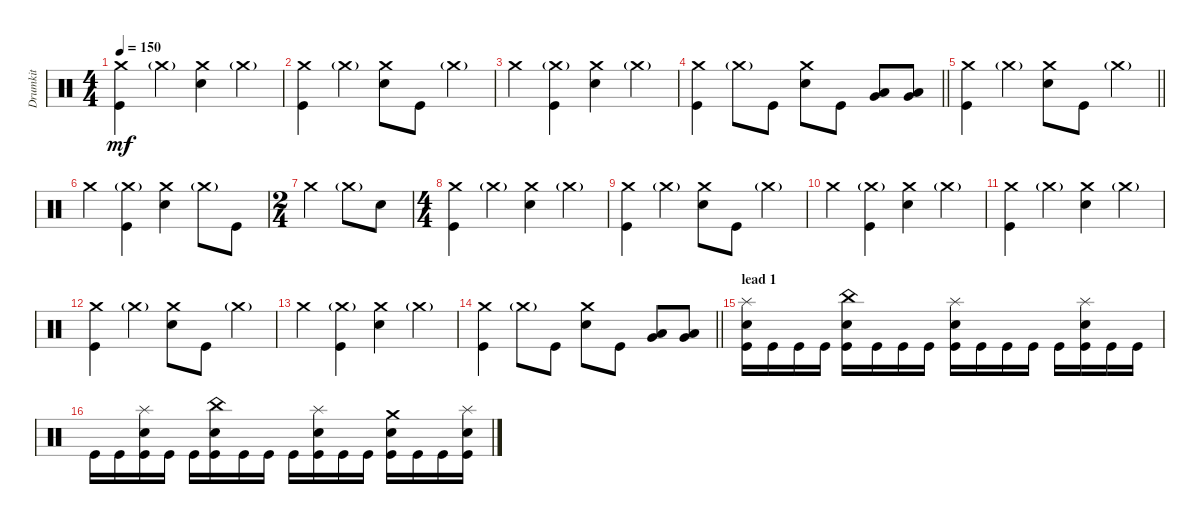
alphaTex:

\track ("Drumkit" "Drumkit") {instrument percussion}
\staff {score}
\articulation defaults
\ts (4 4)
\tempo 150
\clef neutral
\ks c
("Crash medium (hit)" "Kick (hit)").4{dy mf} "Crash medium (hit)"{g}.4 ("Crash medium (hit)" "Snare (hit) 2").4 "Crash medium (hit)"{g}.4 |
("Crash medium (hit)" "Kick (hit)").4 "Crash medium (hit)"{g}.4 ("Crash medium (hit)" "Snare (hit) 2").8 "Kick (hit)".8 "Crash medium (hit)"{g}.4 |
"Crash medium (hit)".4 ("Crash medium (hit)"{g} "Kick (hit)").4 ("Crash medium (hit)" "Snare (hit) 2").4 "Crash medium (hit)"{g}.4 |
\barLineRight lightlight
("Crash medium (hit)" "Kick (hit)").4 "Crash medium (hit)"{g}.8 "Kick (hit)".8 ("Crash medium (hit)" "Snare (hit) 2").8 "Kick (hit)".8 ("Very Low Tom (hit)" "Low Tom (hit)").8 ("Low Floor Tom (hit)" "Very Low Tom (hit)").8 |
\barLineRight lightlight
("Crash medium (hit)" "Kick (hit)").4 "Crash medium (hit)"{g}.4 ("Crash medium (hit)" "Snare (hit) 2").8 "Kick (hit)".8 "Crash medium (hit)"{g}.4 |
"Crash medium (hit)".4 ("Crash medium (hit)"{g} "Kick (hit)").4 ("Crash medium (hit)" "Snare (hit) 2").4 "Crash medium (hit)"{g}.8 "Kick (hit)".8 |
\ts (2 4)
"Crash medium (hit)".4 "Crash medium (hit)"{g}.8 "Snare (hit) 2".8 |
\ts (4 4)
("Kick (hit)" "Crash medium (hit)").4 "Crash medium (hit)"{g}.4 ("Crash medium (hit)" "Snare (hit) 2").4 "Crash medium (hit)"{g}.4 |
("Crash medium (hit)" "Kick (hit)").4 "Crash medium (hit)"{g}.4 ("Crash medium (hit)" "Snare (hit) 2").8 "Kick (hit)".8 "Crash medium (hit)"{g}.4 |
"Crash medium (hit)".4 ("Crash medium (hit)"{g} "Kick (hit)").4 ("Crash medium (hit)" "Snare (hit) 2").4 "Crash medium (hit)"{g}.4 |
("Crash medium (hit)" "Kick (hit)").4 "Crash medium (hit)"{g}.4 ("Crash medium (hit)" "Snare (hit) 2").4 "Crash medium (hit)"{g}.4 |
("Crash medium (hit)" "Kick (hit)").4 "Crash medium (hit)"{g}.4 ("Crash medium (hit)" "Snare (hit) 2").8 "Kick (hit)".8 "Crash medium (hit)"{g}.4 |
"Crash medium (hit)".4 ("Crash medium (hit)"{g} "Kick (hit)").4 ("Crash medium (hit)" "Snare (hit) 2").4 "Crash medium (hit)"{g}.4 |
\barLineRight lightlight
("Crash medium (hit)" "Kick (hit)").4 "Crash medium (hit)"{g}.8 "Kick (hit)".8 ("Crash medium (hit)" "Snare (hit) 2").8 "Kick (hit)".8 ("Very Low Tom (hit)" "Low Tom (hit)").8 ("Low Floor Tom (hit)" "Very Low Tom (hit)").8 |
\section ("" "lead 1")
("Kick (hit)" "Snare (hit) 2" "Splash (hit)").16 "Kick (hit)".16 "Kick (hit)".16 "Kick (hit)".16 ("Kick (hit)" "Snare (hit) 2" "China (hit)").16 "Kick (hit)".16 "Kick (hit)".16 "Kick (hit)".16 ("Kick (hit)" "Snare (hit) 2" "Splash (hit)").16 "Kick (hit)".16 "Kick (hit)".16 "Kick (hit)".16 "Kick (hit)".16 ("Kick (hit)" "Snare (hit) 2" "Splash (hit)").16 "Kick (hit)".16 "Kick (hit)".16 |
"Kick (hit)".16 "Kick (hit)".16 ("Kick (hit)" "Snare (hit) 2" "Splash (hit)").16 "Kick (hit)".16 "Kick (hit)".16 ("Kick (hit)" "Snare (hit) 2" "China (hit)").16 "Kick (hit)".16 "Kick (hit)".16 "Kick (hit)".16 ("Kick (hit)" "Snare (hit) 2" "Splash (hit)").16 "Kick (hit)".16 "Kick (hit)".16 ("Kick (hit)" "Snare (hit) 2" "Crash medium (hit)").16 "Kick (hit)".16 "Kick (hit)".16 ("Kick (hit)" "Snare (hit) 2" "Splash (hit)").16
